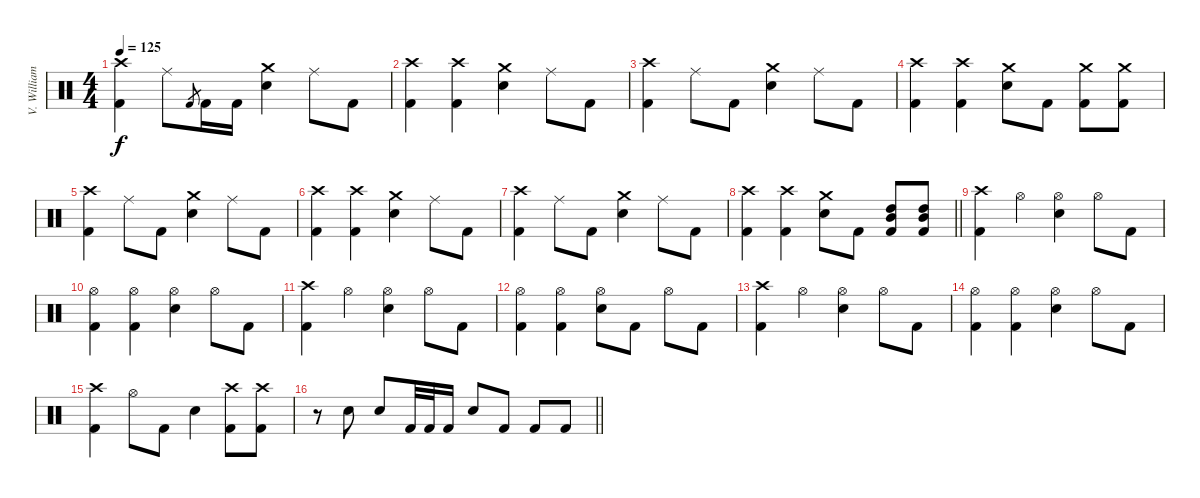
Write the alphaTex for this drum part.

\track ("V. Williams (Drums)" "V. William") {instrument percussion}
\staff {score}
\articulation defaults
\ts (4 4)
\tempo 125
\clef neutral
\ks c
("Crash high (hit)" "Kick (hit) 2").4{dy f} "Ride (middle)".8 "Kick (hit) 2".8{gr} "Kick (hit) 2".16 "Kick (hit) 2".16 ("Crash medium (hit)" "Electric Snare (hit)").4 "Ride (middle)".8 "Kick (hit) 2".8 |
("Crash high (hit)" "Kick (hit) 2").4 ("Crash high (hit)" "Kick (hit) 2").4 ("Crash medium (hit)" "Electric Snare (hit)").4 "Ride (middle)".8 "Kick (hit) 2".8 |
("Crash high (hit)" "Kick (hit) 2").4 "Ride (middle)".8 "Kick (hit) 2".8 ("Crash medium (hit)" "Electric Snare (hit)").4 "Ride (middle)".8 "Kick (hit) 2".8 |
("Crash high (hit)" "Kick (hit) 2").4 ("Crash high (hit)" "Kick (hit) 2").4 ("Crash medium (hit)" "Electric Snare (hit)").8 "Kick (hit) 2".8 ("Crash medium (hit)" "Kick (hit) 2").8 ("Crash medium (hit)" "Kick (hit) 2").8 |
("Crash high (hit)" "Kick (hit) 2").4 "Ride (middle)".8 "Kick (hit) 2".8 ("Crash medium (hit)" "Electric Snare (hit)").4 "Ride (middle)".8 "Kick (hit) 2".8 |
("Crash high (hit)" "Kick (hit) 2").4 ("Crash high (hit)" "Kick (hit) 2").4 ("Crash medium (hit)" "Electric Snare (hit)").4 "Ride (middle)".8 "Kick (hit) 2".8 |
("Crash high (hit)" "Kick (hit) 2").4 "Ride (middle)".8 "Kick (hit) 2".8 ("Crash medium (hit)" "Electric Snare (hit)").4 "Ride (middle)".8 "Kick (hit) 2".8 |
\barLineRight lightlight
("Crash high (hit)" "Kick (hit) 2").4 ("Crash high (hit)" "Kick (hit) 2").4 ("Crash medium (hit)" "Electric Snare (hit)").8 "Kick (hit) 2".8 ("High Tom (hit)" "Mid Tom (hit)" "Kick (hit) 2").8 ("High Tom (hit)" "Mid Tom (hit)" "Kick (hit) 2").8 |
\section ("" "")
("Crash high (hit)" "Kick (hit) 2").4 "Hi-Hat (open)".4 ("Hi-Hat (open)" "Electric Snare (hit)").4 "Hi-Hat (open)".8 "Kick (hit) 2".8 |
("Hi-Hat (open)" "Kick (hit) 2").4 ("Hi-Hat (open)" "Kick (hit) 2").4 ("Hi-Hat (open)" "Electric Snare (hit)").4 "Hi-Hat (open)".8 "Kick (hit) 2".8 |
("Crash high (hit)" "Kick (hit) 2").4 "Hi-Hat (open)".4 ("Hi-Hat (open)" "Electric Snare (hit)").4 "Hi-Hat (open)".8 "Kick (hit) 2".8 |
("Hi-Hat (open)" "Kick (hit) 2").4 ("Hi-Hat (open)" "Kick (hit) 2").4 ("Hi-Hat (open)" "Electric Snare (hit)").8 "Kick (hit) 2".8 "Hi-Hat (open)".8 "Kick (hit) 2".8 |
("Crash high (hit)" "Kick (hit) 2").4 "Hi-Hat (open)".4 ("Hi-Hat (open)" "Electric Snare (hit)").4 "Hi-Hat (open)".8 "Kick (hit) 2".8 |
("Hi-Hat (open)" "Kick (hit) 2").4 ("Hi-Hat (open)" "Kick (hit) 2").4 ("Hi-Hat (open)" "Electric Snare (hit)").4 "Hi-Hat (open)".8 "Kick (hit) 2".8 |
("Crash high (hit)" "Kick (hit) 2").4 "Hi-Hat (open)".8 "Kick (hit) 2".8 "Electric Snare (hit)".4 ("Crash high (hit)" "Kick (hit) 2").8 ("Crash high (hit)" "Kick (hit) 2").8 |
\barLineRight lightlight
r.8 "Electric Snare (hit)".8 "Electric Snare (hit)".8 "Kick (hit) 2".32 "Kick (hit) 2".32 "Kick (hit) 2".16 "Electric Snare (hit)".8 "Kick (hit) 2".8 "Kick (hit) 2".8 "Kick (hit) 2".8
